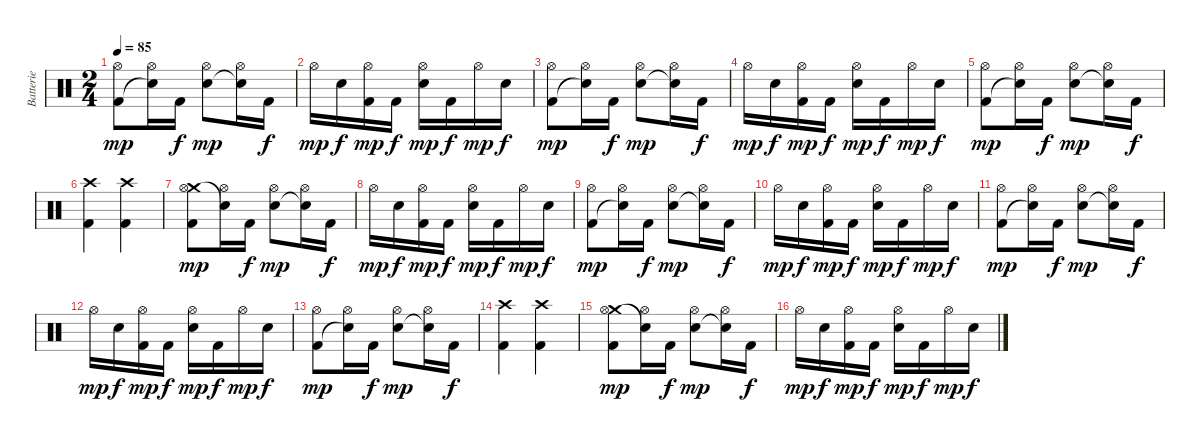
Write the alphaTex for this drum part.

\track ("Batterie" "Batterie") {instrument percussion}
\staff {score}
\articulation defaults
\ts (2 4)
\tempo 85
\clef neutral
\ks c
("Hi-Hat (open)" "Kick (hit) 2").8{dy mp} ("Hi-Hat (open)" "Snare (hit)"{t}).16 "Kick (hit) 2".16{dy f} ("Electric Snare (hit)" "Hi-Hat (open)").8{dy mp} ("Snare (hit)"{t} "Hi-Hat (open)").16 "Kick (hit) 2".16{dy f} |
"Hi-Hat (open)".16{dy mp} "Electric Snare (hit)".16{dy f} ("Hi-Hat (open)" "Kick (hit) 2").16{dy mp} "Kick (hit) 2".16{dy f} ("Electric Snare (hit)" "Hi-Hat (open)").16{dy mp} "Kick (hit) 2".16{dy f} "Hi-Hat (open)".16{dy mp} "Electric Snare (hit)".16{dy f} |
("Hi-Hat (open)" "Kick (hit) 2").8{dy mp} ("Hi-Hat (open)" "Snare (hit)"{t}).16 "Kick (hit) 2".16{dy f} ("Electric Snare (hit)" "Hi-Hat (open)").8{dy mp} ("Snare (hit)"{t} "Hi-Hat (open)").16 "Kick (hit) 2".16{dy f} |
"Hi-Hat (open)".16{dy mp} "Electric Snare (hit)".16{dy f} ("Hi-Hat (open)" "Kick (hit) 2").16{dy mp} "Kick (hit) 2".16{dy f} ("Electric Snare (hit)" "Hi-Hat (open)").16{dy mp} "Kick (hit) 2".16{dy f} "Hi-Hat (open)".16{dy mp} "Electric Snare (hit)".16{dy f} |
("Hi-Hat (open)" "Kick (hit) 2").8{dy mp} ("Hi-Hat (open)" "Snare (hit)"{t}).16 "Kick (hit) 2".16{dy f} ("Electric Snare (hit)" "Hi-Hat (open)").8{dy mp} ("Snare (hit)"{t} "Hi-Hat (open)").16 "Kick (hit) 2".16{dy f} |
("Crash high (hit)" "Kick (hit) 2").4 ("Crash high (hit)" "Kick (hit) 2").4 |
("Crash medium (hit)" "Hi-Hat (open)" "Kick (hit) 2").8{dy mp} ("Hi-Hat (open)" "Snare (hit)"{t}).16 "Kick (hit) 2".16{dy f} ("Electric Snare (hit)" "Hi-Hat (open)").8{dy mp} ("Snare (hit)"{t} "Hi-Hat (open)").16 "Kick (hit) 2".16{dy f} |
"Hi-Hat (open)".16{dy mp} "Electric Snare (hit)".16{dy f} ("Hi-Hat (open)" "Kick (hit) 2").16{dy mp} "Kick (hit) 2".16{dy f} ("Electric Snare (hit)" "Hi-Hat (open)").16{dy mp} "Kick (hit) 2".16{dy f} "Hi-Hat (open)".16{dy mp} "Electric Snare (hit)".16{dy f} |
("Hi-Hat (open)" "Kick (hit) 2").8{dy mp} ("Hi-Hat (open)" "Snare (hit)"{t}).16 "Kick (hit) 2".16{dy f} ("Electric Snare (hit)" "Hi-Hat (open)").8{dy mp} ("Snare (hit)"{t} "Hi-Hat (open)").16 "Kick (hit) 2".16{dy f} |
"Hi-Hat (open)".16{dy mp} "Electric Snare (hit)".16{dy f} ("Hi-Hat (open)" "Kick (hit) 2").16{dy mp} "Kick (hit) 2".16{dy f} ("Electric Snare (hit)" "Hi-Hat (open)").16{dy mp} "Kick (hit) 2".16{dy f} "Hi-Hat (open)".16{dy mp} "Electric Snare (hit)".16{dy f} |
("Hi-Hat (open)" "Kick (hit) 2").8{dy mp} ("Hi-Hat (open)" "Snare (hit)"{t}).16 "Kick (hit) 2".16{dy f} ("Electric Snare (hit)" "Hi-Hat (open)").8{dy mp} ("Snare (hit)"{t} "Hi-Hat (open)").16 "Kick (hit) 2".16{dy f} |
"Hi-Hat (open)".16{dy mp} "Electric Snare (hit)".16{dy f} ("Hi-Hat (open)" "Kick (hit) 2").16{dy mp} "Kick (hit) 2".16{dy f} ("Electric Snare (hit)" "Hi-Hat (open)").16{dy mp} "Kick (hit) 2".16{dy f} "Hi-Hat (open)".16{dy mp} "Electric Snare (hit)".16{dy f} |
("Hi-Hat (open)" "Kick (hit) 2").8{dy mp} ("Hi-Hat (open)" "Snare (hit)"{t}).16 "Kick (hit) 2".16{dy f} ("Electric Snare (hit)" "Hi-Hat (open)").8{dy mp} ("Snare (hit)"{t} "Hi-Hat (open)").16 "Kick (hit) 2".16{dy f} |
("Crash high (hit)" "Kick (hit) 2").4 ("Crash high (hit)" "Kick (hit) 2").4 |
("Crash medium (hit)" "Hi-Hat (open)" "Kick (hit) 2").8{dy mp} ("Hi-Hat (open)" "Snare (hit)"{t}).16 "Kick (hit) 2".16{dy f} ("Electric Snare (hit)" "Hi-Hat (open)").8{dy mp} ("Snare (hit)"{t} "Hi-Hat (open)").16 "Kick (hit) 2".16{dy f} |
"Hi-Hat (open)".16{dy mp} "Electric Snare (hit)".16{dy f} ("Hi-Hat (open)" "Kick (hit) 2").16{dy mp} "Kick (hit) 2".16{dy f} ("Electric Snare (hit)" "Hi-Hat (open)").16{dy mp} "Kick (hit) 2".16{dy f} "Hi-Hat (open)".16{dy mp} "Electric Snare (hit)".16{dy f}
